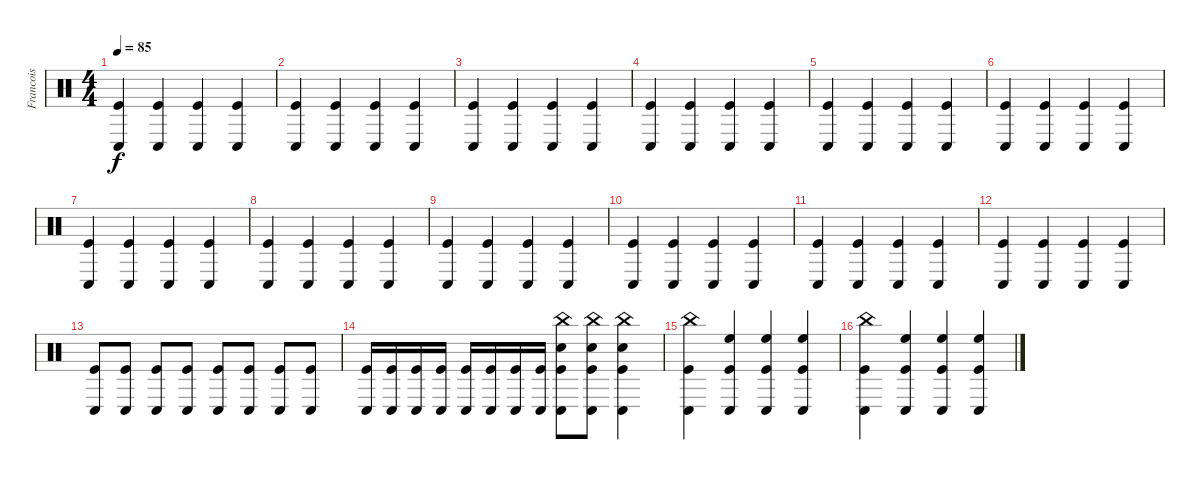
\track ("Francois" "Francois") {instrument percussion}
\staff {score}
\articulation defaults
\ts (4 4)
\tempo 85
\clef neutral
\ks c
("Kick (hit)" "Conga low (hit)").4{dy f} ("Kick (hit)" "Conga low (hit)").4 ("Kick (hit)" "Conga low (hit)").4 ("Kick (hit)" "Conga low (hit)").4 |
("Kick (hit)" "Conga low (hit)").4 ("Kick (hit)" "Conga low (hit)").4 ("Kick (hit)" "Conga low (hit)").4 ("Kick (hit)" "Conga low (hit)").4 |
("Kick (hit)" "Conga low (hit)").4 ("Kick (hit)" "Conga low (hit)").4 ("Kick (hit)" "Conga low (hit)").4 ("Kick (hit)" "Conga low (hit)").4 |
("Kick (hit)" "Conga low (hit)").4 ("Kick (hit)" "Conga low (hit)").4 ("Kick (hit)" "Conga low (hit)").4 ("Kick (hit)" "Conga low (hit)").4 |
("Kick (hit)" "Conga low (hit)").4 ("Kick (hit)" "Conga low (hit)").4 ("Kick (hit)" "Conga low (hit)").4 ("Kick (hit)" "Conga low (hit)").4 |
("Kick (hit)" "Conga low (hit)").4 ("Kick (hit)" "Conga low (hit)").4 ("Kick (hit)" "Conga low (hit)").4 ("Kick (hit)" "Conga low (hit)").4 |
("Kick (hit)" "Conga low (hit)").4 ("Kick (hit)" "Conga low (hit)").4 ("Kick (hit)" "Conga low (hit)").4 ("Kick (hit)" "Conga low (hit)").4 |
("Kick (hit)" "Conga low (hit)").4 ("Kick (hit)" "Conga low (hit)").4 ("Kick (hit)" "Conga low (hit)").4 ("Kick (hit)" "Conga low (hit)").4 |
("Kick (hit)" "Conga low (hit)").4 ("Kick (hit)" "Conga low (hit)").4 ("Kick (hit)" "Conga low (hit)").4 ("Kick (hit)" "Conga low (hit)").4 |
("Kick (hit)" "Conga low (hit)").4 ("Kick (hit)" "Conga low (hit)").4 ("Kick (hit)" "Conga low (hit)").4 ("Kick (hit)" "Conga low (hit)").4 |
("Kick (hit)" "Conga low (hit)").4 ("Kick (hit)" "Conga low (hit)").4 ("Kick (hit)" "Conga low (hit)").4 ("Kick (hit)" "Conga low (hit)").4 |
("Kick (hit)" "Conga low (hit)").4 ("Kick (hit)" "Conga low (hit)").4 ("Kick (hit)" "Conga low (hit)").4 ("Kick (hit)" "Conga low (hit)").4 |
("Kick (hit)" "Conga low (hit)").8 ("Kick (hit)" "Conga low (hit)").8 ("Kick (hit)" "Conga low (hit)").8 ("Kick (hit)" "Conga low (hit)").8 ("Kick (hit)" "Conga low (hit)").8 ("Kick (hit)" "Conga low (hit)").8 ("Kick (hit)" "Conga low (hit)").8 ("Kick (hit)" "Conga low (hit)").8 |
("Kick (hit)" "Conga low (hit)").16 ("Kick (hit)" "Conga low (hit)").16 ("Kick (hit)" "Conga low (hit)").16 ("Kick (hit)" "Conga low (hit)").16 ("Kick (hit)" "Conga low (hit)").16 ("Kick (hit)" "Conga low (hit)").16 ("Kick (hit)" "Conga low (hit)").16 ("Kick (hit)" "Conga low (hit)").16 ("Electric Snare (hit)" "China (hit)" "Kick (hit)" "Conga low (hit)").8 ("Electric Snare (hit)" "China (hit)" "Kick (hit)" "Conga low (hit)").8 ("Electric Snare (hit)" "China (hit)" "Kick (hit)" "Conga low (hit)").4 |
("China (hit)" "Kick (hit)" "Conga low (hit)").4 ("High Floor Tom (hit)" "Kick (hit)" "Conga low (hit)").4 ("High Floor Tom (hit)" "Kick (hit)" "Conga low (hit)").4 ("High Floor Tom (hit)" "Kick (hit)" "Conga low (hit)").4 |
("China (hit)" "Kick (hit)" "Conga low (hit)").4 ("High Floor Tom (hit)" "Kick (hit)" "Conga low (hit)").4 ("High Floor Tom (hit)" "Kick (hit)" "Conga low (hit)").4 ("High Floor Tom (hit)" "Kick (hit)" "Conga low (hit)").4
